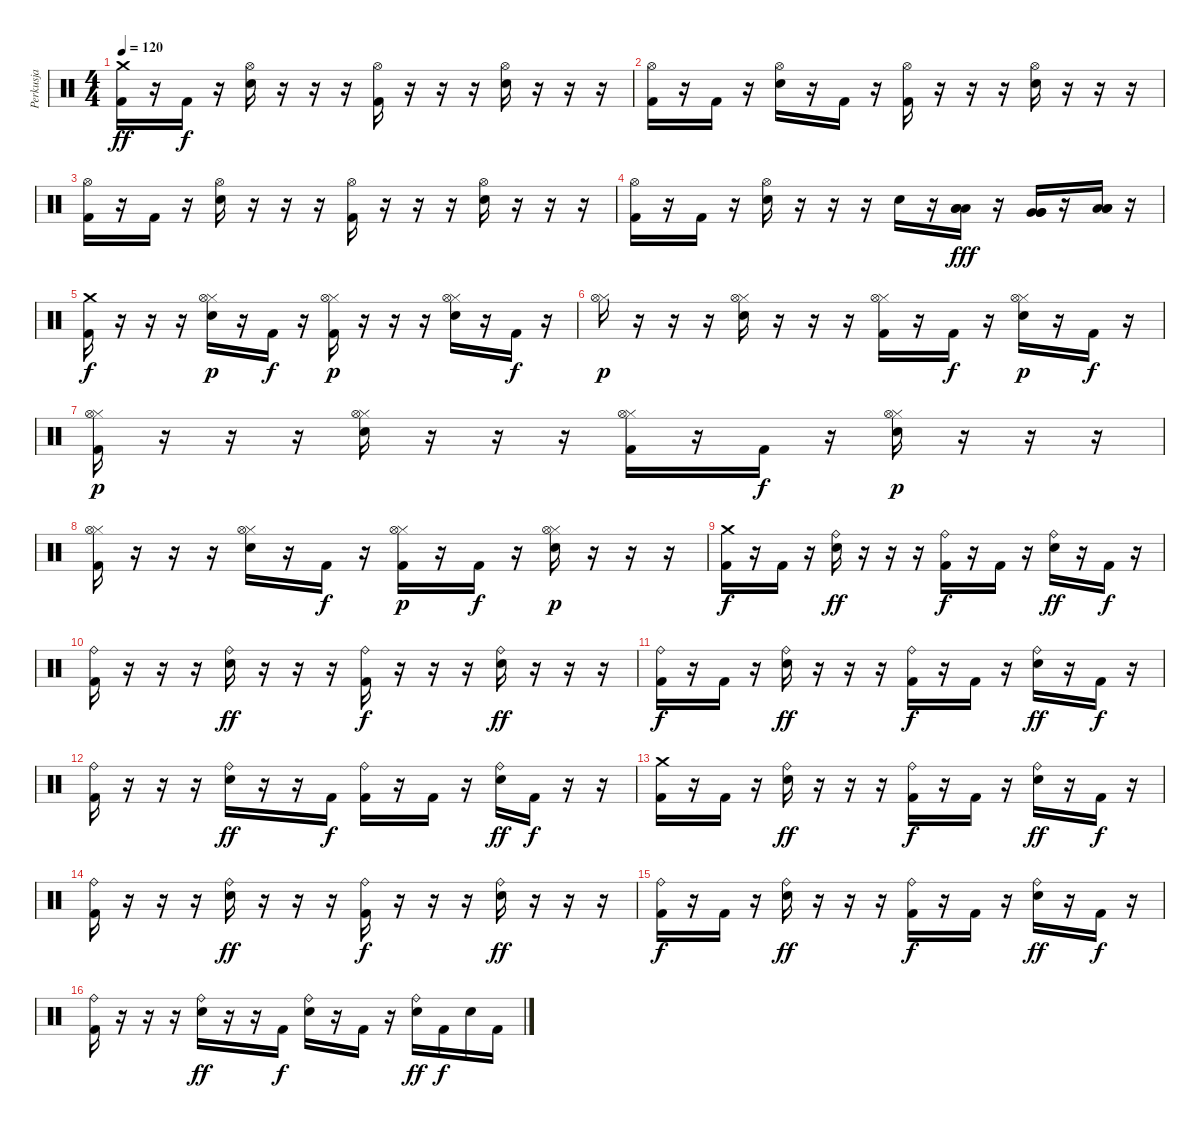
\track ("Perkusja" "Perkusja") {instrument percussion}
\staff {score}
\articulation defaults
\ts (4 4)
\tempo 120
\clef neutral
\ks c
("Kick (hit) 2" "Crash medium (hit)").16{dy ff} r.16 "Kick (hit) 2".16{dy f} r.16 ("Electric Snare (hit)" "Hi-Hat (open)").16 r.16 r.16 r.16 ("Kick (hit) 2" "Hi-Hat (open)").16 r.16 r.16 r.16 ("Electric Snare (hit)" "Hi-Hat (open)").16 r.16 r.16 r.16 |
("Kick (hit) 2" "Hi-Hat (open)").16 r.16 "Kick (hit) 2".16 r.16 ("Electric Snare (hit)" "Hi-Hat (open)").16 r.16 "Kick (hit) 2".16 r.16 ("Kick (hit) 2" "Hi-Hat (open)").16 r.16 r.16 r.16 ("Electric Snare (hit)" "Hi-Hat (open)").16 r.16 r.16 r.16 |
("Kick (hit) 2" "Hi-Hat (open)").16 r.16 "Kick (hit) 2".16 r.16 ("Electric Snare (hit)" "Hi-Hat (open)").16 r.16 r.16 r.16 ("Kick (hit) 2" "Hi-Hat (open)").16 r.16 r.16 r.16 ("Electric Snare (hit)" "Hi-Hat (open)").16 r.16 r.16 r.16 |
("Kick (hit) 2" "Hi-Hat (open)").16 r.16 "Kick (hit) 2".16 r.16 ("Electric Snare (hit)" "Hi-Hat (open)").16 r.16 r.16 r.16 "Electric Snare (hit)".16 r.16 ("Low Tom (hit)" "Low Tom (hit)" "Low Tom (hit)").16{dy fff} r.16 ("Very Low Tom (hit)" "Very Low Tom (hit)" "Very Low Tom (hit)").16 r.16 ("Low Floor Tom (hit)" "Low Floor Tom (hit)" "Low Floor Tom (hit)").16 r.16 |
("Kick (hit) 2" "Crash medium (hit)").16{dy f} r.16 r.16 r.16 ("Electric Snare (hit)" "Hi-Hat (closed)" "Hi-Hat (open)").16{dy p} r.16 "Kick (hit) 2".16{dy f} r.16 ("Kick (hit) 2" "Hi-Hat (closed)" "Hi-Hat (open)").16{dy p} r.16 r.16 r.16 ("Electric Snare (hit)" "Hi-Hat (closed)" "Hi-Hat (open)").16 r.16 "Kick (hit) 2".16{dy f} r.16 |
("Hi-Hat (closed)" "Hi-Hat (open)").16{dy p} r.16 r.16 r.16 ("Electric Snare (hit)" "Hi-Hat (closed)" "Hi-Hat (open)").16 r.16 r.16 r.16 ("Kick (hit) 2" "Hi-Hat (closed)" "Hi-Hat (open)").16 r.16 "Kick (hit) 2".16{dy f} r.16 ("Electric Snare (hit)" "Hi-Hat (closed)" "Hi-Hat (open)").16{dy p} r.16 "Kick (hit) 2".16{dy f} r.16 |
("Kick (hit) 2" "Hi-Hat (closed)" "Hi-Hat (open)").16{dy p} r.16 r.16 r.16 ("Electric Snare (hit)" "Hi-Hat (closed)" "Hi-Hat (open)").16 r.16 r.16 r.16 ("Kick (hit) 2" "Hi-Hat (closed)" "Hi-Hat (open)").16 r.16 "Kick (hit) 2".16{dy f} r.16 ("Electric Snare (hit)" "Hi-Hat (closed)" "Hi-Hat (open)").16{dy p} r.16 r.16 r.16 |
("Kick (hit) 2" "Hi-Hat (closed)" "Hi-Hat (open)").16 r.16 r.16 r.16 ("Electric Snare (hit)" "Hi-Hat (closed)" "Hi-Hat (open)").16 r.16 "Kick (hit) 2".16{dy f} r.16 ("Kick (hit) 2" "Hi-Hat (closed)" "Hi-Hat (open)").16{dy p} r.16 "Kick (hit) 2".16{dy f} r.16 ("Electric Snare (hit)" "Hi-Hat (closed)" "Hi-Hat (open)").16{dy p} r.16 r.16 r.16 |
("Kick (hit) 2" "Crash medium (hit)").16{dy f} r.16 "Kick (hit) 2".16 r.16 ("Electric Snare (hit)" "Ride (bell)").16{dy ff} r.16 r.16 r.16 ("Kick (hit) 2" "Ride (bell)").16{dy f} r.16 "Kick (hit) 2".16 r.16 ("Electric Snare (hit)" "Ride (bell)").16{dy ff} r.16 "Kick (hit) 2".16{dy f} r.16 |
("Kick (hit) 2" "Ride (bell)").16 r.16 r.16 r.16 ("Electric Snare (hit)" "Ride (bell)").16{dy ff} r.16 r.16 r.16 ("Kick (hit) 2" "Ride (bell)").16{dy f} r.16 r.16 r.16 ("Electric Snare (hit)" "Ride (bell)").16{dy ff} r.16 r.16 r.16 |
("Kick (hit) 2" "Ride (bell)").16{dy f} r.16 "Kick (hit) 2".16 r.16 ("Electric Snare (hit)" "Ride (bell)").16{dy ff} r.16 r.16 r.16 ("Kick (hit) 2" "Ride (bell)").16{dy f} r.16 "Kick (hit) 2".16 r.16 ("Electric Snare (hit)" "Ride (bell)").16{dy ff} r.16 "Kick (hit) 2".16{dy f} r.16 |
("Kick (hit) 2" "Ride (bell)").16 r.16 r.16 r.16 ("Electric Snare (hit)" "Ride (bell)").16{dy ff} r.16 r.16 "Kick (hit) 2".16{dy f} ("Kick (hit) 2" "Ride (bell)").16 r.16 "Kick (hit) 2".16 r.16 ("Electric Snare (hit)" "Ride (bell)").16{dy ff} "Kick (hit) 2".16{dy f} r.16 r.16 |
("Kick (hit) 2" "Crash medium (hit)").16 r.16 "Kick (hit) 2".16 r.16 ("Electric Snare (hit)" "Ride (bell)").16{dy ff} r.16 r.16 r.16 ("Kick (hit) 2" "Ride (bell)").16{dy f} r.16 "Kick (hit) 2".16 r.16 ("Electric Snare (hit)" "Ride (bell)").16{dy ff} r.16 "Kick (hit) 2".16{dy f} r.16 |
("Kick (hit) 2" "Ride (bell)").16 r.16 r.16 r.16 ("Electric Snare (hit)" "Ride (bell)").16{dy ff} r.16 r.16 r.16 ("Kick (hit) 2" "Ride (bell)").16{dy f} r.16 r.16 r.16 ("Electric Snare (hit)" "Ride (bell)").16{dy ff} r.16 r.16 r.16 |
("Kick (hit) 2" "Ride (bell)").16{dy f} r.16 "Kick (hit) 2".16 r.16 ("Electric Snare (hit)" "Ride (bell)").16{dy ff} r.16 r.16 r.16 ("Kick (hit) 2" "Ride (bell)").16{dy f} r.16 "Kick (hit) 2".16 r.16 ("Electric Snare (hit)" "Ride (bell)").16{dy ff} r.16 "Kick (hit) 2".16{dy f} r.16 |
("Kick (hit) 2" "Ride (bell)").16 r.16 r.16 r.16 ("Electric Snare (hit)" "Ride (bell)").16{dy ff} r.16 r.16 "Kick (hit) 2".16{dy f} ("Electric Snare (hit)" "Ride (bell)").16 r.16 "Kick (hit) 2".16 r.16 ("Electric Snare (hit)" "Ride (bell)").16{dy ff} "Kick (hit) 2".16{dy f} "Electric Snare (hit)".16 "Kick (hit) 2".16
